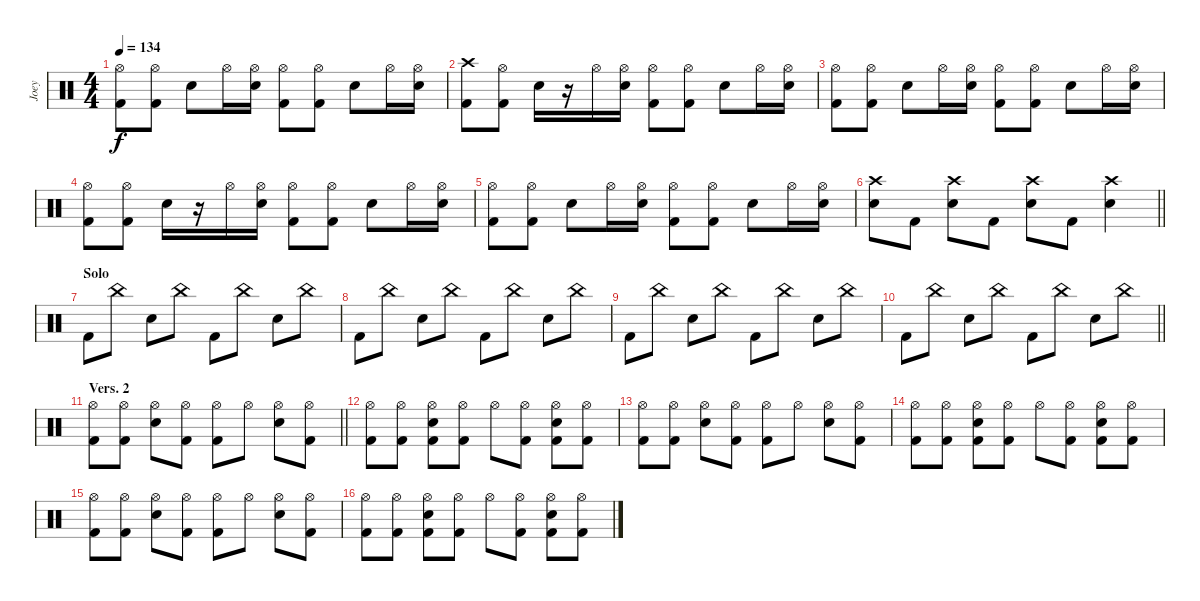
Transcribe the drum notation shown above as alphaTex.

\track ("Joey" "Joey") {instrument percussion}
\staff {score}
\articulation defaults
\ts (4 4)
\tempo 134
\clef neutral
\ks c
("Hi-Hat (open)" "Kick (hit) 2").8{dy f} ("Hi-Hat (open)" "Kick (hit) 2").8 "Electric Snare (hit)".8 "Hi-Hat (open)".16 ("Hi-Hat (open)" "Electric Snare (hit)").16 ("Hi-Hat (open)" "Kick (hit) 2").8 ("Hi-Hat (open)" "Kick (hit) 2").8 "Electric Snare (hit)".8 "Hi-Hat (open)".16 ("Hi-Hat (open)" "Electric Snare (hit)").16 |
("Crash high (hit)" "Kick (hit) 2").8 ("Hi-Hat (open)" "Kick (hit) 2").8 "Electric Snare (hit)".16 r.16 "Hi-Hat (open)".16 ("Hi-Hat (open)" "Electric Snare (hit)").16 ("Hi-Hat (open)" "Kick (hit) 2").8 ("Hi-Hat (open)" "Kick (hit) 2").8 "Electric Snare (hit)".8 "Hi-Hat (open)".16 ("Hi-Hat (open)" "Electric Snare (hit)").16 |
("Hi-Hat (open)" "Kick (hit) 2").8 ("Hi-Hat (open)" "Kick (hit) 2").8 "Electric Snare (hit)".8 "Hi-Hat (open)".16 ("Hi-Hat (open)" "Electric Snare (hit)").16 ("Hi-Hat (open)" "Kick (hit) 2").8 ("Hi-Hat (open)" "Kick (hit) 2").8 "Electric Snare (hit)".8 "Hi-Hat (open)".16 ("Hi-Hat (open)" "Electric Snare (hit)").16 |
("Hi-Hat (open)" "Kick (hit) 2").8 ("Hi-Hat (open)" "Kick (hit) 2").8 "Electric Snare (hit)".16 r.16 "Hi-Hat (open)".16 ("Hi-Hat (open)" "Electric Snare (hit)").16 ("Hi-Hat (open)" "Kick (hit) 2").8 ("Hi-Hat (open)" "Kick (hit) 2").8 "Electric Snare (hit)".8 "Hi-Hat (open)".16 ("Hi-Hat (open)" "Electric Snare (hit)").16 |
("Hi-Hat (open)" "Kick (hit) 2").8 ("Hi-Hat (open)" "Kick (hit) 2").8 "Electric Snare (hit)".8 "Hi-Hat (open)".16 ("Hi-Hat (open)" "Electric Snare (hit)").16 ("Hi-Hat (open)" "Kick (hit) 2").8 ("Hi-Hat (open)" "Kick (hit) 2").8 "Electric Snare (hit)".8 "Hi-Hat (open)".16 ("Hi-Hat (open)" "Electric Snare (hit)").16 |
\barLineRight lightlight
("Crash high (hit)" "Electric Snare (hit)").8 "Kick (hit) 2".8 ("Crash high (hit)" "Electric Snare (hit)").8 "Kick (hit) 2".8 ("Crash high (hit)" "Electric Snare (hit)").8 "Kick (hit) 2".8 ("Crash high (hit)" "Electric Snare (hit)").4 |
\section ("" "Solo")
"Kick (hit) 2".8 "China (hit)".8 "Electric Snare (hit)".8 "China (hit)".8 "Kick (hit) 2".8 "China (hit)".8 "Electric Snare (hit)".8 "China (hit)".8 |
"Kick (hit) 2".8 "China (hit)".8 "Electric Snare (hit)".8 "China (hit)".8 "Kick (hit) 2".8 "China (hit)".8 "Electric Snare (hit)".8 "China (hit)".8 |
"Kick (hit) 2".8 "China (hit)".8 "Electric Snare (hit)".8 "China (hit)".8 "Kick (hit) 2".8 "China (hit)".8 "Electric Snare (hit)".8 "China (hit)".8 |
\barLineRight lightlight "Kick (hit) 2".8 "China (hit)".8 "Electric Snare (hit)".8 "China (hit)".8 "Kick (hit) 2".8 "China (hit)".8 "Electric Snare (hit)".8 "China (hit)".8
|
\section ("" "Vers. 2")
\barLineRight lightlight
("Hi-Hat (open)" "Kick (hit) 2").8 ("Hi-Hat (open)" "Kick (hit) 2").8 ("Hi-Hat (open)" "Electric Snare (hit)").8 ("Hi-Hat (open)" "Kick (hit) 2").8 ("Hi-Hat (open)" "Kick (hit) 2").8 "Hi-Hat (open)".8 ("Hi-Hat (open)" "Electric Snare (hit)").8 ("Hi-Hat (open)" "Kick (hit) 2").8 |
\section ("" "")
("Hi-Hat (open)" "Kick (hit) 2").8 ("Hi-Hat (open)" "Kick (hit) 2").8 ("Hi-Hat (open)" "Electric Snare (hit)" "Kick (hit) 2").8 ("Hi-Hat (open)" "Kick (hit) 2").8 "Hi-Hat (open)".8 ("Hi-Hat (open)" "Kick (hit) 2").8 ("Hi-Hat (open)" "Electric Snare (hit)" "Kick (hit) 2").8 ("Hi-Hat (open)" "Kick (hit) 2").8 |
("Hi-Hat (open)" "Kick (hit) 2").8 ("Hi-Hat (open)" "Kick (hit) 2").8 ("Hi-Hat (open)" "Electric Snare (hit)").8 ("Hi-Hat (open)" "Kick (hit) 2").8 ("Hi-Hat (open)" "Kick (hit) 2").8 "Hi-Hat (open)".8 ("Hi-Hat (open)" "Electric Snare (hit)").8 ("Hi-Hat (open)" "Kick (hit) 2").8 |
("Hi-Hat (open)" "Kick (hit) 2").8 ("Hi-Hat (open)" "Kick (hit) 2").8 ("Hi-Hat (open)" "Electric Snare (hit)" "Kick (hit) 2").8 ("Hi-Hat (open)" "Kick (hit) 2").8 "Hi-Hat (open)".8 ("Hi-Hat (open)" "Kick (hit) 2").8 ("Hi-Hat (open)" "Electric Snare (hit)" "Kick (hit) 2").8 ("Hi-Hat (open)" "Kick (hit) 2").8 |
("Hi-Hat (open)" "Kick (hit) 2").8 ("Hi-Hat (open)" "Kick (hit) 2").8 ("Hi-Hat (open)" "Electric Snare (hit)").8 ("Hi-Hat (open)" "Kick (hit) 2").8 ("Hi-Hat (open)" "Kick (hit) 2").8 "Hi-Hat (open)".8 ("Hi-Hat (open)" "Electric Snare (hit)").8 ("Hi-Hat (open)" "Kick (hit) 2").8 |
("Hi-Hat (open)" "Kick (hit) 2").8 ("Hi-Hat (open)" "Kick (hit) 2").8 ("Hi-Hat (open)" "Electric Snare (hit)" "Kick (hit) 2").8 ("Hi-Hat (open)" "Kick (hit) 2").8 "Hi-Hat (open)".8 ("Hi-Hat (open)" "Kick (hit) 2").8 ("Hi-Hat (open)" "Electric Snare (hit)" "Kick (hit) 2").8 ("Hi-Hat (open)" "Kick (hit) 2").8
